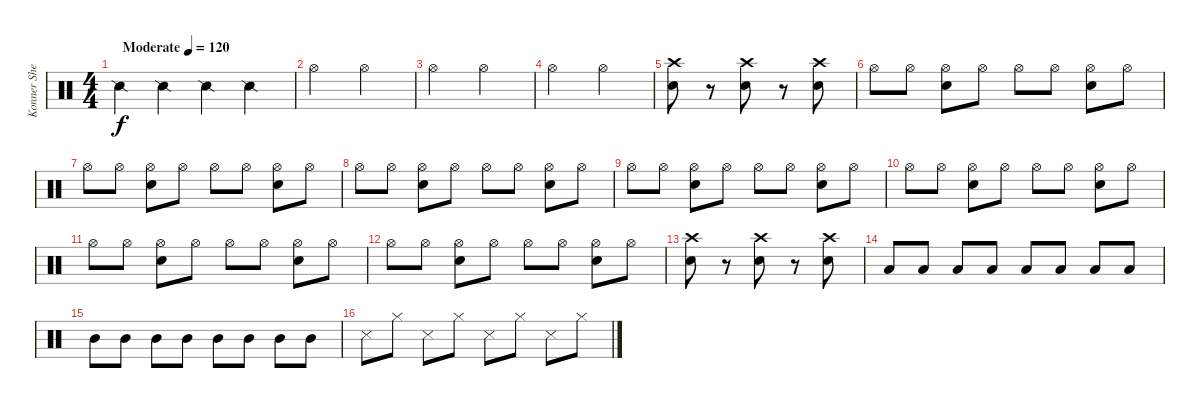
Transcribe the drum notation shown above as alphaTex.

\track ("Konner Sherman (Percussion)" "Konner She") {instrument percussion}
\staff {score}
\articulation defaults
\ts (4 4)
\tempo (120 "Moderate")
\clef neutral
\ks c "Snare (side stick) 2".4{dy f} "Snare (side stick) 2".4 "Snare (side stick) 2".4 "Snare (side stick) 2".4
|
"Hi-Hat (open)".2 "Hi-Hat (open)".2 |
"Hi-Hat (open)".2 "Hi-Hat (open)".2 |
"Hi-Hat (open)".2 "Hi-Hat (open)".2 |
("Crash high (hit)" "Electric Snare (hit)").8 r.8 ("Crash high (hit)" "Electric Snare (hit)").8 r.8 ("Crash high (hit)" "Electric Snare (hit)").8 |
"Hi-Hat (open)".8 "Hi-Hat (open)".8 ("Hi-Hat (open)" "Electric Snare (hit)").8 "Hi-Hat (open)".8 "Hi-Hat (open)".8 "Hi-Hat (open)".8 ("Hi-Hat (open)" "Electric Snare (hit)").8 "Hi-Hat (open)".8 |
"Hi-Hat (open)".8 "Hi-Hat (open)".8 ("Hi-Hat (open)" "Electric Snare (hit)").8 "Hi-Hat (open)".8 "Hi-Hat (open)".8 "Hi-Hat (open)".8 ("Hi-Hat (open)" "Electric Snare (hit)").8 "Hi-Hat (open)".8 |
"Hi-Hat (open)".8 "Hi-Hat (open)".8 ("Hi-Hat (open)" "Electric Snare (hit)").8 "Hi-Hat (open)".8 "Hi-Hat (open)".8 "Hi-Hat (open)".8 ("Hi-Hat (open)" "Electric Snare (hit)").8 "Hi-Hat (open)".8 |
"Hi-Hat (open)".8 "Hi-Hat (open)".8 ("Hi-Hat (open)" "Electric Snare (hit)").8 "Hi-Hat (open)".8 "Hi-Hat (open)".8 "Hi-Hat (open)".8 ("Hi-Hat (open)" "Electric Snare (hit)").8 "Hi-Hat (open)".8 |
"Hi-Hat (open)".8 "Hi-Hat (open)".8 ("Hi-Hat (open)" "Electric Snare (hit)").8 "Hi-Hat (open)".8 "Hi-Hat (open)".8 "Hi-Hat (open)".8 ("Hi-Hat (open)" "Electric Snare (hit)").8 "Hi-Hat (open)".8 |
"Hi-Hat (open)".8 "Hi-Hat (open)".8 ("Hi-Hat (open)" "Electric Snare (hit)").8 "Hi-Hat (open)".8 "Hi-Hat (open)".8 "Hi-Hat (open)".8 ("Hi-Hat (open)" "Electric Snare (hit)").8 "Hi-Hat (open)".8 |
"Hi-Hat (open)".8 "Hi-Hat (open)".8 ("Hi-Hat (open)" "Electric Snare (hit)").8 "Hi-Hat (open)".8 "Hi-Hat (open)".8 "Hi-Hat (open)".8 ("Hi-Hat (open)" "Electric Snare (hit)").8 "Hi-Hat (open)".8 |
("Crash high (hit)" "Electric Snare (hit)").8 r.8 ("Crash high (hit)" "Electric Snare (hit)").8 r.8 ("Crash high (hit)" "Electric Snare (hit)").8 |
"Low Tom (hit)".8 "Low Tom (hit)".8 "Low Tom (hit)".8 "Low Tom (hit)".8 "Low Tom (hit)".8 "Low Tom (hit)".8 "Low Tom (hit)".8 "Low Tom (hit)".8 |
"Mid Tom (hit)".8 "Mid Tom (hit)".8 "Mid Tom (hit)".8 "Mid Tom (hit)".8 "Mid Tom (hit)".8 "Mid Tom (hit)".8 "Mid Tom (hit)".8 "Mid Tom (hit)".8 |
"Snare (side stick) 3".8 "Hi-Hat (closed)".8 "Snare (side stick) 3".8 "Hi-Hat (closed)".8 "Snare (side stick) 3".8 "Hi-Hat (closed)".8 "Snare (side stick) 3".8 "Hi-Hat (closed)".8
